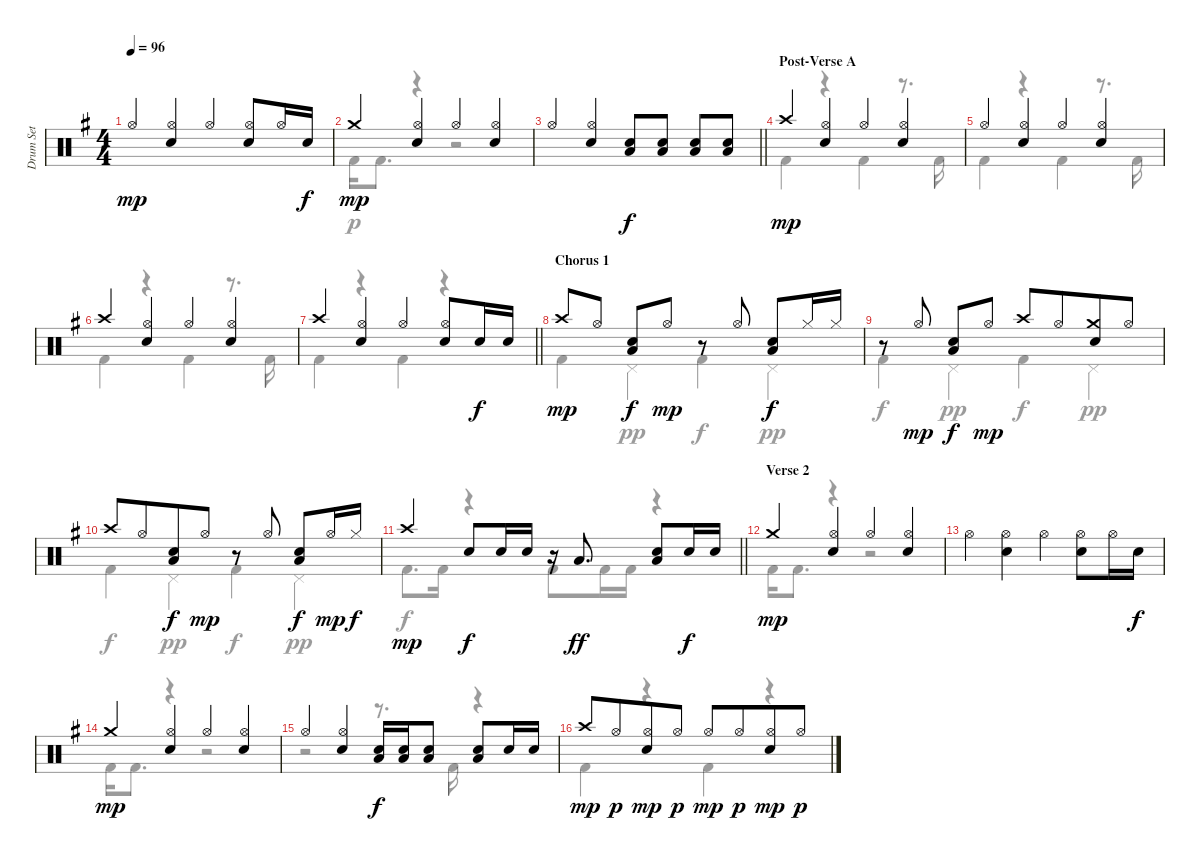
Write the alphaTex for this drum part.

\track ("Drum Set" "Drum Set") {instrument percussion}
\staff {score}
\articulation defaults
\voice
\ts (4 4)
\tempo 96
\clef neutral
\ks g "Hi-Hat (open)".4{dy mp beam Up}
("Hi-Hat (open)" "Electric Snare (hit)").4{beam Up} "Hi-Hat (open)".4{beam Up} ("Hi-Hat (open)" "Electric Snare (hit)").8{beam Up} "Hi-Hat (open)".16{beam Up} "Electric Snare (hit)".16{dy f beam Up} |
"Crash medium (hit)".4{dy mp} ("Hi-Hat (open)" "Electric Snare (hit)").4 "Hi-Hat (open)".4 ("Hi-Hat (open)" "Electric Snare (hit)").4 |
\barLineRight lightlight "Hi-Hat (open)".4{beam Up}
("Hi-Hat (open)" "Electric Snare (hit)").4{beam Up} ("Electric Snare (hit)" "Low Tom (hit)").8{dy f beam Up} ("Electric Snare (hit)" "Low Tom (hit)").8{beam Up} ("Electric Snare (hit)" "Low Tom (hit)").8{beam Up} ("Electric Snare (hit)" "Low Tom (hit)").8{beam Up} |
\section ("" "Post-Verse A")
"Crash high (hit)".4{dy mp} ("Electric Snare (hit)" "Hi-Hat (open)").4 "Hi-Hat (open)".4 ("Electric Snare (hit)" "Hi-Hat (open)").4 |
"Hi-Hat (open)".4 ("Electric Snare (hit)" "Hi-Hat (open)").4 "Hi-Hat (open)".4 ("Electric Snare (hit)" "Hi-Hat (open)").4 |
"Crash high (hit)".4 ("Electric Snare (hit)" "Hi-Hat (open)").4 "Hi-Hat (open)".4 ("Electric Snare (hit)" "Hi-Hat (open)").4 |
\barLineRight lightlight "Crash high (hit)".4
("Electric Snare (hit)" "Hi-Hat (open)").4 "Hi-Hat (open)".4 ("Electric Snare (hit)" "Hi-Hat (open)").8 "Electric Snare (hit)".16{dy f} "Electric Snare (hit)".16 |
\section ("" "Chorus 1")
"Crash high (hit)".8{dy mp} "Hi-Hat (open)".8{beam split} ("Electric Snare (hit)" "Low Tom (hit)").8{dy f} "Hi-Hat (open)".8{dy mp} r.8 "Hi-Hat (open)".8 ("Electric Snare (hit)" "Low Tom (hit)").8{dy f} "Hi-Hat (closed)".16 "Hi-Hat (closed)".16 |
r.8 "Hi-Hat (open)".8{dy mp} ("Electric Snare (hit)" "Low Tom (hit)").8{dy f} "Hi-Hat (open)".8{dy mp} "Crash high (hit)".8 "Hi-Hat (open)".8{beam merge} ("Electric Snare (hit)" "Crash medium (hit)").8 "Hi-Hat (open)".8 |
"Crash high (hit)".8 "Hi-Hat (open)".8{beam merge} ("Electric Snare (hit)" "Low Tom (hit)").8{dy f} "Hi-Hat (open)".8{dy mp} r.8 "Hi-Hat (open)".8 ("Electric Snare (hit)" "Low Tom (hit)").8{dy f} "Hi-Hat (open)".16{dy mp} "Hi-Hat (closed)".16{dy f} |
\barLineRight lightlight "Crash high (hit)".4{dy mp} "Electric Snare (hit)".8{dy f} "Electric Snare (hit)".16 "Electric Snare (hit)".16
r.16 "Low Tom (hit)".8{d dy ff} ("Electric Snare (hit)" "Low Tom (hit)").8 "Electric Snare (hit)".16{dy f} "Electric Snare (hit)".16 |
\section ("" "Verse 2")
"Crash medium (hit)".4{dy mp} ("Hi-Hat (open)" "Electric Snare (hit)").4 "Hi-Hat (open)".4 ("Hi-Hat (open)" "Electric Snare (hit)").4 |
"Hi-Hat (open)".4 ("Hi-Hat (open)" "Electric Snare (hit)").4 "Hi-Hat (open)".4 ("Hi-Hat (open)" "Electric Snare (hit)").8 "Hi-Hat (open)".16 "Electric Snare (hit)".16{dy f} |
"Crash medium (hit)".4{dy mp} ("Hi-Hat (open)" "Electric Snare (hit)").4 "Hi-Hat (open)".4 ("Hi-Hat (open)" "Electric Snare (hit)").4 |
"Hi-Hat (open)".4 ("Hi-Hat (open)" "Electric Snare (hit)").4 ("Electric Snare (hit)" "Low Tom (hit)").16{dy f} ("Electric Snare (hit)" "Low Tom (hit)").16 ("Electric Snare (hit)" "Low Tom (hit)").8 ("Electric Snare (hit)" "Low Tom (hit)").8 "Electric Snare (hit)".16 "Electric Snare (hit)".16 |
"Crash high (hit)".8{dy mp} "Hi-Hat (open)".8{dy p beam merge} ("Hi-Hat (open)" "Electric Snare (hit)").8{dy mp} "Hi-Hat (open)".8{dy p} "Hi-Hat (open)".8{dy mp} "Hi-Hat (open)".8{dy p beam merge} ("Hi-Hat (open)" "Electric Snare (hit)").8{dy mp} "Hi-Hat (open)".8{dy p}
\voice
\clef neutral
\ottava regular
\simile none
\ks g
|
"Kick (hit) 2".16 "Kick (hit) 2".8{d} r.4 r.2 |
\barLineRight lightlight
|
"Kick (hit) 2".4 r.4 "Kick (hit) 2".4 r.8{d} "Kick (hit) 2".16 |
"Kick (hit) 2".4 r.4 "Kick (hit) 2".4 r.8{d} "Kick (hit) 2".16 |
"Kick (hit) 2".4 r.4 "Kick (hit) 2".4 r.8{d} "Kick (hit) 2".16 |
\barLineRight lightlight "Kick (hit) 2".4
r.4 "Kick (hit) 2".4 r.4 |
"Kick (hit) 2".4 "Pedal Hi-Hat (hit)".4{dy pp} "Kick (hit) 2".4{dy f} "Pedal Hi-Hat (hit)".4{dy pp} |
"Kick (hit) 2".4{dy f} "Pedal Hi-Hat (hit)".4{dy pp} "Kick (hit) 2".4{dy f} "Pedal Hi-Hat (hit)".4{dy pp} |
"Kick (hit) 2".4{dy f} "Pedal Hi-Hat (hit)".4{dy pp} "Kick (hit) 2".4{dy f} "Pedal Hi-Hat (hit)".4{dy pp} |
\barLineRight lightlight "Kick (hit) 2".8{d dy f} "Kick (hit) 2".16
r.4 "Kick (hit) 2".8 "Kick (hit) 2".16 "Kick (hit) 2".16 r.4 |
"Kick (hit) 2".16 "Kick (hit) 2".8{d} r.4 r.2 |
|
"Kick (hit) 2".16 "Kick (hit) 2".8{d} r.4 r.2 |
r.2 r.8{d} "Kick (hit) 2".16 r.4 |
"Kick (hit) 2".4 r.4 "Kick (hit) 2".4 r.4
